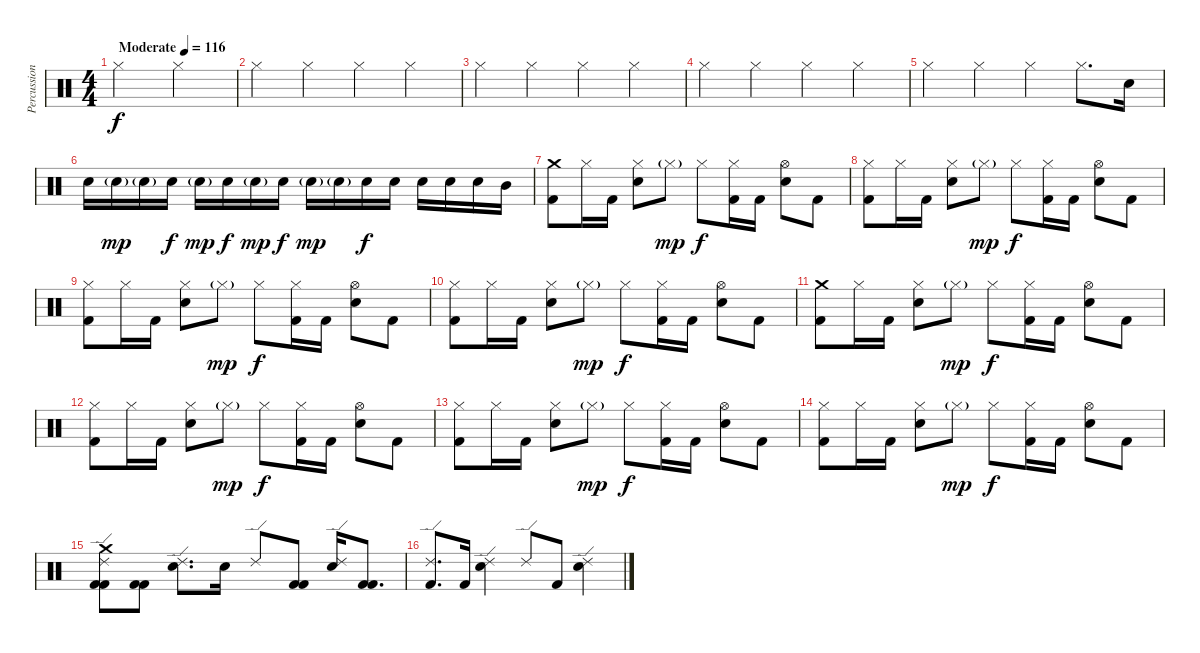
\track ("Percussion" "Percussion") {instrument percussion}
\staff {score}
\articulation defaults
\ts (4 4)
\tempo (116 "Moderate")
\clef neutral
\ks c "Hi-Hat (closed)".2{dy f} "Hi-Hat (closed)".2
|
"Hi-Hat (closed)".4 "Hi-Hat (closed)".4 "Hi-Hat (closed)".4 "Hi-Hat (closed)".4 |
"Hi-Hat (closed)".4 "Hi-Hat (closed)".4 "Hi-Hat (closed)".4 "Hi-Hat (closed)".4 |
"Hi-Hat (closed)".4 "Hi-Hat (closed)".4 "Hi-Hat (closed)".4 "Hi-Hat (closed)".4 |
"Hi-Hat (closed)".4 "Hi-Hat (closed)".4 "Hi-Hat (closed)".4 "Hi-Hat (closed)".8{d} "Snare (hit) 2".16 |
"Snare (hit) 2".16 "Snare (hit) 2"{g}.16{dy mp} "Snare (hit) 2"{g}.16 "Snare (hit) 2".16{dy f} "Snare (hit) 2"{g}.16{dy mp} "Snare (hit) 2".16{dy f} "Snare (hit) 2"{g}.16{dy mp} "Snare (hit) 2".16{dy f} "Snare (hit) 2"{g}.16{dy mp} "Snare (hit) 2"{g}.16 "Snare (hit) 2".16{dy f} "Snare (hit) 2".16 "Snare (hit) 2".16 "Snare (hit) 2".16 "Snare (hit) 2".16 "Mid Tom (hit)".16 |
("Crash medium (hit)" "Kick (hit) 2").8 "Hi-Hat (closed)".16 "Kick (hit) 2".16 ("Hi-Hat (closed)" "Snare (hit) 2").8 "Hi-Hat (closed)"{g}.8{dy mp} "Hi-Hat (closed)".8{dy f} ("Hi-Hat (closed)" "Kick (hit) 2").16 "Kick (hit) 2".16 ("Hi-Hat (open)" "Snare (hit) 2").8 "Kick (hit) 2".8 |
("Hi-Hat (closed)" "Kick (hit) 2").8 "Hi-Hat (closed)".16 "Kick (hit) 2".16 ("Hi-Hat (closed)" "Snare (hit) 2").8 "Hi-Hat (closed)"{g}.8{dy mp} "Hi-Hat (closed)".8{dy f} ("Hi-Hat (closed)" "Kick (hit) 2").16 "Kick (hit) 2".16 ("Hi-Hat (open)" "Snare (hit) 2").8 "Kick (hit) 2".8 |
("Hi-Hat (closed)" "Kick (hit) 2").8 "Hi-Hat (closed)".16 "Kick (hit) 2".16 ("Hi-Hat (closed)" "Snare (hit) 2").8 "Hi-Hat (closed)"{g}.8{dy mp} "Hi-Hat (closed)".8{dy f} ("Hi-Hat (closed)" "Kick (hit) 2").16 "Kick (hit) 2".16 ("Hi-Hat (open)" "Snare (hit) 2").8 "Kick (hit) 2".8 |
("Hi-Hat (closed)" "Kick (hit) 2").8 "Hi-Hat (closed)".16 "Kick (hit) 2".16 ("Hi-Hat (closed)" "Snare (hit) 2").8 "Hi-Hat (closed)"{g}.8{dy mp} "Hi-Hat (closed)".8{dy f} ("Hi-Hat (closed)" "Kick (hit) 2").16 "Kick (hit) 2".16 ("Hi-Hat (open)" "Snare (hit) 2").8 "Kick (hit) 2".8 |
("Crash medium (hit)" "Kick (hit) 2").8 "Hi-Hat (closed)".16 "Kick (hit) 2".16 ("Hi-Hat (closed)" "Snare (hit) 2").8 "Hi-Hat (closed)"{g}.8{dy mp} "Hi-Hat (closed)".8{dy f} ("Hi-Hat (closed)" "Kick (hit) 2").16 "Kick (hit) 2".16 ("Hi-Hat (open)" "Snare (hit) 2").8 "Kick (hit) 2".8 |
("Hi-Hat (closed)" "Kick (hit) 2").8 "Hi-Hat (closed)".16 "Kick (hit) 2".16 ("Hi-Hat (closed)" "Snare (hit) 2").8 "Hi-Hat (closed)"{g}.8{dy mp} "Hi-Hat (closed)".8{dy f} ("Hi-Hat (closed)" "Kick (hit) 2").16 "Kick (hit) 2".16 ("Hi-Hat (open)" "Snare (hit) 2").8 "Kick (hit) 2".8 |
("Hi-Hat (closed)" "Kick (hit) 2").8 "Hi-Hat (closed)".16 "Kick (hit) 2".16 ("Hi-Hat (closed)" "Snare (hit) 2").8 "Hi-Hat (closed)"{g}.8{dy mp} "Hi-Hat (closed)".8{dy f} ("Hi-Hat (closed)" "Kick (hit) 2").16 "Kick (hit) 2".16 ("Hi-Hat (open)" "Snare (hit) 2").8 "Kick (hit) 2".8 |
("Hi-Hat (closed)" "Kick (hit) 2").8 "Hi-Hat (closed)".16 "Kick (hit) 2".16 ("Hi-Hat (closed)" "Snare (hit) 2").8 "Hi-Hat (closed)"{g}.8{dy mp} "Hi-Hat (closed)".8{dy f} ("Hi-Hat (closed)" "Kick (hit) 2").16 "Kick (hit) 2".16 ("Hi-Hat (open)" "Snare (hit) 2").8 "Kick (hit) 2".8 |
("Crash medium (hit)" "Ride (edge) 2" "Kick (hit) 2" "Kick (hit) 2").8 ("Kick (hit) 2" "Kick (hit) 2").8 ("Ride (edge) 2" "Snare (hit) 2").8{d} "Snare (hit) 2".16 "Ride (edge) 2".8 ("Kick (hit) 2" "Kick (hit) 2").8 ("Ride (edge) 2" "Snare (hit) 2").16 ("Kick (hit) 2" "Kick (hit) 2").8{d} |
("Ride (edge) 2" "Kick (hit) 2").8{d} "Kick (hit) 2".16 ("Ride (edge) 2" "Snare (hit) 2").4 "Ride (edge) 2".8 "Kick (hit) 2".8 ("Ride (edge) 2" "Snare (hit) 2").4
